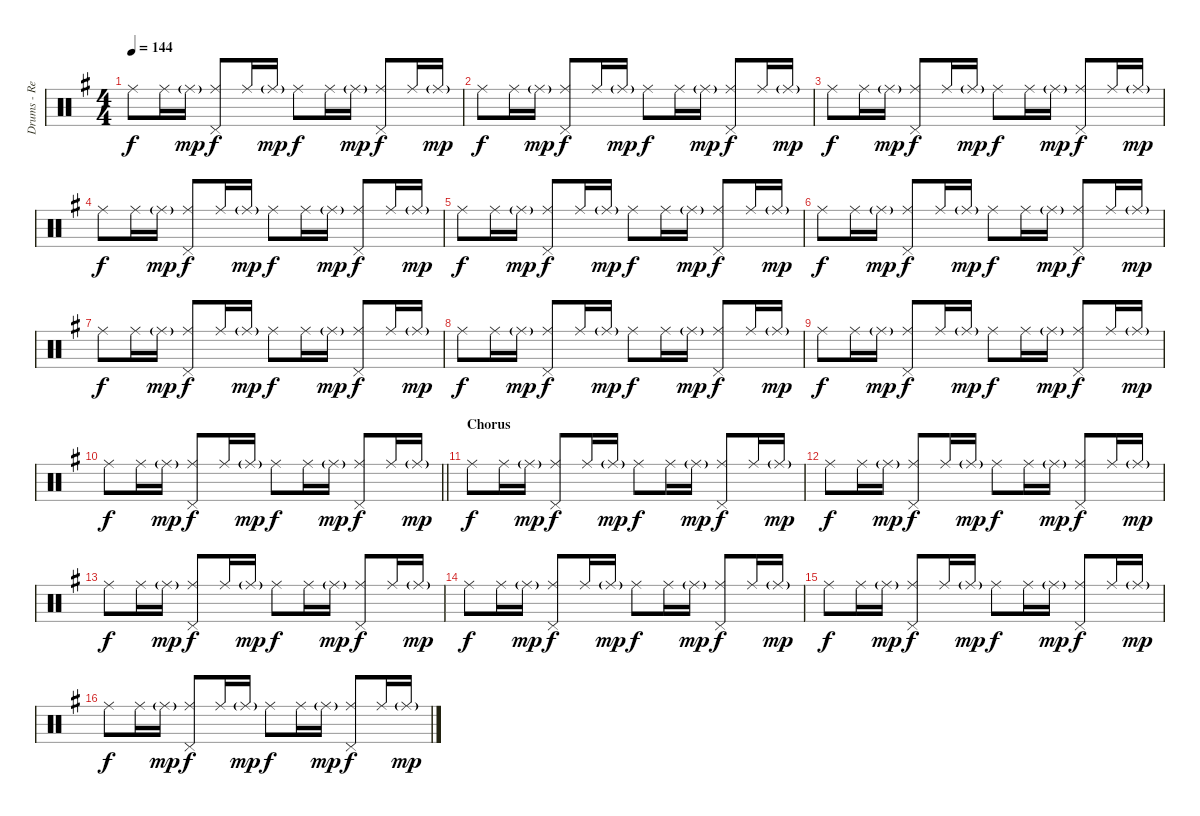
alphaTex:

\track ("Drums - Reni" "Drums - Re") {instrument percussion}
\staff {score}
\articulation defaults
\ts (4 4)
\tempo 144
\clef neutral
\ks g "Ride (middle)".8{dy f} "Ride (middle)".16 "Ride (middle)"{g}.16{dy mp}
("Ride (middle)" "Pedal Hi-Hat (hit)").8{dy f} "Ride (middle)".16 "Ride (middle)"{g}.16{dy mp} "Ride (middle)".8{dy f} "Ride (middle)".16 "Ride (middle)"{g}.16{dy mp} ("Ride (middle)" "Pedal Hi-Hat (hit)").8{dy f} "Ride (middle)".16 "Ride (middle)"{g}.16{dy mp} |
"Ride (middle)".8{dy f} "Ride (middle)".16 "Ride (middle)"{g}.16{dy mp} ("Ride (middle)" "Pedal Hi-Hat (hit)").8{dy f} "Ride (middle)".16 "Ride (middle)"{g}.16{dy mp} "Ride (middle)".8{dy f} "Ride (middle)".16 "Ride (middle)"{g}.16{dy mp} ("Ride (middle)" "Pedal Hi-Hat (hit)").8{dy f} "Ride (middle)".16 "Ride (middle)"{g}.16{dy mp} |
"Ride (middle)".8{dy f} "Ride (middle)".16 "Ride (middle)"{g}.16{dy mp} ("Ride (middle)" "Pedal Hi-Hat (hit)").8{dy f} "Ride (middle)".16 "Ride (middle)"{g}.16{dy mp} "Ride (middle)".8{dy f} "Ride (middle)".16 "Ride (middle)"{g}.16{dy mp} ("Ride (middle)" "Pedal Hi-Hat (hit)").8{dy f} "Ride (middle)".16 "Ride (middle)"{g}.16{dy mp} |
"Ride (middle)".8{dy f} "Ride (middle)".16 "Ride (middle)"{g}.16{dy mp} ("Ride (middle)" "Pedal Hi-Hat (hit)").8{dy f} "Ride (middle)".16 "Ride (middle)"{g}.16{dy mp} "Ride (middle)".8{dy f} "Ride (middle)".16 "Ride (middle)"{g}.16{dy mp} ("Ride (middle)" "Pedal Hi-Hat (hit)").8{dy f} "Ride (middle)".16 "Ride (middle)"{g}.16{dy mp} |
"Ride (middle)".8{dy f} "Ride (middle)".16 "Ride (middle)"{g}.16{dy mp} ("Ride (middle)" "Pedal Hi-Hat (hit)").8{dy f} "Ride (middle)".16 "Ride (middle)"{g}.16{dy mp} "Ride (middle)".8{dy f} "Ride (middle)".16 "Ride (middle)"{g}.16{dy mp} ("Ride (middle)" "Pedal Hi-Hat (hit)").8{dy f} "Ride (middle)".16 "Ride (middle)"{g}.16{dy mp} |
"Ride (middle)".8{dy f} "Ride (middle)".16 "Ride (middle)"{g}.16{dy mp} ("Ride (middle)" "Pedal Hi-Hat (hit)").8{dy f} "Ride (middle)".16 "Ride (middle)"{g}.16{dy mp} "Ride (middle)".8{dy f} "Ride (middle)".16 "Ride (middle)"{g}.16{dy mp} ("Ride (middle)" "Pedal Hi-Hat (hit)").8{dy f} "Ride (middle)".16 "Ride (middle)"{g}.16{dy mp} |
"Ride (middle)".8{dy f} "Ride (middle)".16 "Ride (middle)"{g}.16{dy mp} ("Ride (middle)" "Pedal Hi-Hat (hit)").8{dy f} "Ride (middle)".16 "Ride (middle)"{g}.16{dy mp} "Ride (middle)".8{dy f} "Ride (middle)".16 "Ride (middle)"{g}.16{dy mp} ("Ride (middle)" "Pedal Hi-Hat (hit)").8{dy f} "Ride (middle)".16 "Ride (middle)"{g}.16{dy mp} |
"Ride (middle)".8{dy f} "Ride (middle)".16 "Ride (middle)"{g}.16{dy mp} ("Ride (middle)" "Pedal Hi-Hat (hit)").8{dy f} "Ride (middle)".16 "Ride (middle)"{g}.16{dy mp} "Ride (middle)".8{dy f} "Ride (middle)".16 "Ride (middle)"{g}.16{dy mp} ("Ride (middle)" "Pedal Hi-Hat (hit)").8{dy f} "Ride (middle)".16 "Ride (middle)"{g}.16{dy mp} |
"Ride (middle)".8{dy f} "Ride (middle)".16 "Ride (middle)"{g}.16{dy mp} ("Ride (middle)" "Pedal Hi-Hat (hit)").8{dy f} "Ride (middle)".16 "Ride (middle)"{g}.16{dy mp} "Ride (middle)".8{dy f} "Ride (middle)".16 "Ride (middle)"{g}.16{dy mp} ("Ride (middle)" "Pedal Hi-Hat (hit)").8{dy f} "Ride (middle)".16 "Ride (middle)"{g}.16{dy mp} |
\barLineRight lightlight "Ride (middle)".8{dy f} "Ride (middle)".16 "Ride (middle)"{g}.16{dy mp}
("Ride (middle)" "Pedal Hi-Hat (hit)").8{dy f} "Ride (middle)".16 "Ride (middle)"{g}.16{dy mp} "Ride (middle)".8{dy f} "Ride (middle)".16 "Ride (middle)"{g}.16{dy mp} ("Ride (middle)" "Pedal Hi-Hat (hit)").8{dy f} "Ride (middle)".16 "Ride (middle)"{g}.16{dy mp} |
\section ("" "Chorus")
"Ride (middle)".8{dy f} "Ride (middle)".16 "Ride (middle)"{g}.16{dy mp} ("Ride (middle)" "Pedal Hi-Hat (hit)").8{dy f} "Ride (middle)".16 "Ride (middle)"{g}.16{dy mp} "Ride (middle)".8{dy f} "Ride (middle)".16 "Ride (middle)"{g}.16{dy mp} ("Ride (middle)" "Pedal Hi-Hat (hit)").8{dy f} "Ride (middle)".16 "Ride (middle)"{g}.16{dy mp} |
"Ride (middle)".8{dy f} "Ride (middle)".16 "Ride (middle)"{g}.16{dy mp} ("Ride (middle)" "Pedal Hi-Hat (hit)").8{dy f} "Ride (middle)".16 "Ride (middle)"{g}.16{dy mp} "Ride (middle)".8{dy f} "Ride (middle)".16 "Ride (middle)"{g}.16{dy mp} ("Ride (middle)" "Pedal Hi-Hat (hit)").8{dy f} "Ride (middle)".16 "Ride (middle)"{g}.16{dy mp} |
"Ride (middle)".8{dy f} "Ride (middle)".16 "Ride (middle)"{g}.16{dy mp} ("Ride (middle)" "Pedal Hi-Hat (hit)").8{dy f} "Ride (middle)".16 "Ride (middle)"{g}.16{dy mp} "Ride (middle)".8{dy f} "Ride (middle)".16 "Ride (middle)"{g}.16{dy mp} ("Ride (middle)" "Pedal Hi-Hat (hit)").8{dy f} "Ride (middle)".16 "Ride (middle)"{g}.16{dy mp} |
"Ride (middle)".8{dy f} "Ride (middle)".16 "Ride (middle)"{g}.16{dy mp} ("Ride (middle)" "Pedal Hi-Hat (hit)").8{dy f} "Ride (middle)".16 "Ride (middle)"{g}.16{dy mp} "Ride (middle)".8{dy f} "Ride (middle)".16 "Ride (middle)"{g}.16{dy mp} ("Ride (middle)" "Pedal Hi-Hat (hit)").8{dy f} "Ride (middle)".16 "Ride (middle)"{g}.16{dy mp} |
"Ride (middle)".8{dy f} "Ride (middle)".16 "Ride (middle)"{g}.16{dy mp} ("Ride (middle)" "Pedal Hi-Hat (hit)").8{dy f} "Ride (middle)".16 "Ride (middle)"{g}.16{dy mp} "Ride (middle)".8{dy f} "Ride (middle)".16 "Ride (middle)"{g}.16{dy mp} ("Ride (middle)" "Pedal Hi-Hat (hit)").8{dy f} "Ride (middle)".16 "Ride (middle)"{g}.16{dy mp} |
"Ride (middle)".8{dy f} "Ride (middle)".16 "Ride (middle)"{g}.16{dy mp} ("Ride (middle)" "Pedal Hi-Hat (hit)").8{dy f} "Ride (middle)".16 "Ride (middle)"{g}.16{dy mp} "Ride (middle)".8{dy f} "Ride (middle)".16 "Ride (middle)"{g}.16{dy mp} ("Ride (middle)" "Pedal Hi-Hat (hit)").8{dy f} "Ride (middle)".16 "Ride (middle)"{g}.16{dy mp}
